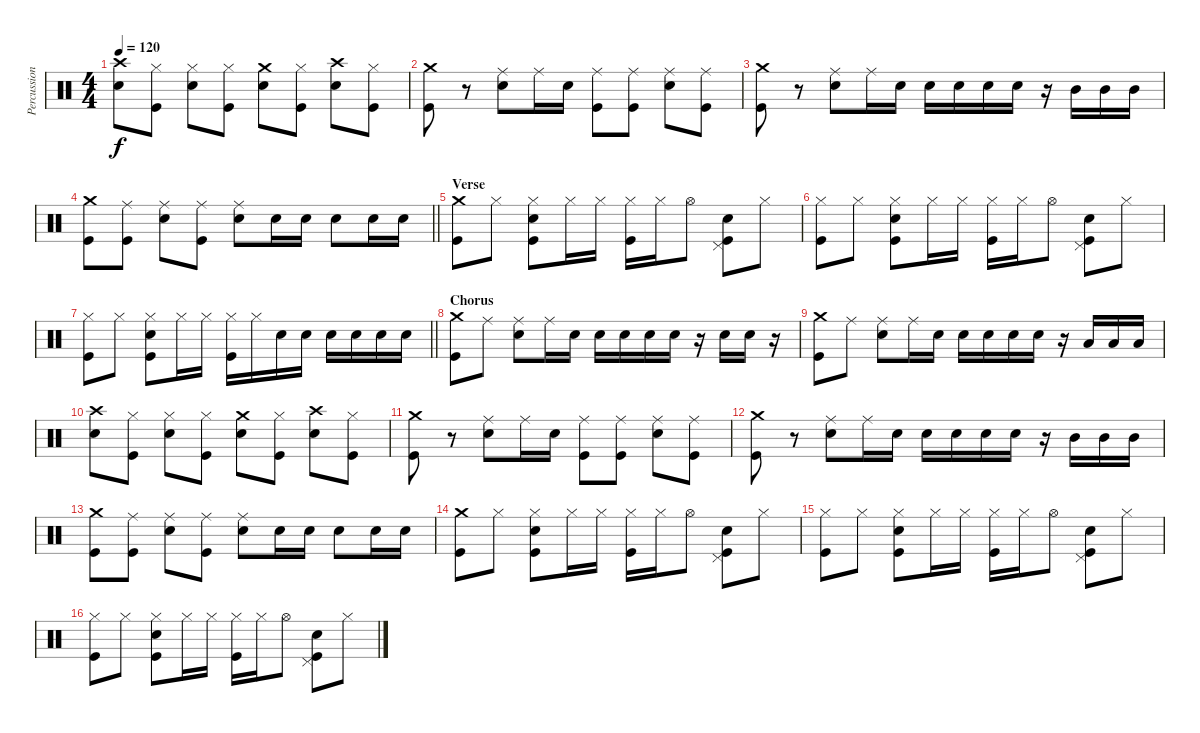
\track ("Percussion" "Percussion") {instrument percussion}
\staff {score}
\articulation defaults
\ts (4 4)
\tempo 120
\clef neutral
\ks c
("Crash high (hit)" "Snare (hit) 2").8{dy f} ("Hi-Hat (closed)" "Kick (hit)").8 ("Hi-Hat (closed)" "Snare (hit) 2").8 ("Hi-Hat (closed)" "Kick (hit)").8 ("Crash medium (hit)" "Snare (hit) 2").8 ("Hi-Hat (closed)" "Kick (hit)").8 ("Crash high (hit)" "Snare (hit) 2").8 ("Hi-Hat (closed)" "Kick (hit)").8 |
("Crash medium (hit)" "Kick (hit)").8 r.8 ("Ride (middle)" "Snare (hit) 2").8 "Ride (middle)".16 "Snare (hit) 2".16 ("Ride (middle)" "Kick (hit)").8 ("Ride (middle)" "Kick (hit)").8 ("Ride (middle)" "Snare (hit) 2").8 ("Ride (middle)" "Kick (hit)").8 |
("Crash medium (hit)" "Kick (hit)").8 r.8 ("Ride (middle)" "Snare (hit) 2").8 "Ride (middle)".16 "Snare (hit) 2".16 "Snare (hit) 2".16 "Snare (hit) 2".16 "Snare (hit) 2".16 "Snare (hit) 2".16 r.16 "Mid Tom (hit)".16 "Mid Tom (hit)".16 "Mid Tom (hit)".16 |
\barLineRight lightlight
("Crash medium (hit)" "Kick (hit)").8 ("Ride (middle)" "Kick (hit)").8 ("Ride (middle)" "Snare (hit) 2").8 ("Ride (middle)" "Kick (hit)").8 ("Ride (middle)" "Snare (hit) 2").8 "Snare (hit) 2".16 "Snare (hit) 2".16 "Snare (hit) 2".8 "Snare (hit) 2".16 "Snare (hit) 2".16 |
\section ("" "Verse")
("Crash medium (hit)" "Kick (hit)").8 "Hi-Hat (closed)".8 ("Snare (hit) 2" "Hi-Hat (closed)" "Kick (hit)").8 "Hi-Hat (closed)".16 "Hi-Hat (closed)".16 ("Hi-Hat (closed)" "Kick (hit)").16 "Hi-Hat (closed)".16 "Hi-Hat (open)".8 ("Snare (hit) 2" "Pedal Hi-Hat (hit)" "Kick (hit)").8 "Hi-Hat (closed)".8 |
("Hi-Hat (closed)" "Kick (hit)").8 "Hi-Hat (closed)".8 ("Snare (hit) 2" "Hi-Hat (closed)" "Kick (hit)").8 "Hi-Hat (closed)".16 "Hi-Hat (closed)".16 ("Hi-Hat (closed)" "Kick (hit)").16 "Hi-Hat (closed)".16 "Hi-Hat (open)".8 ("Snare (hit) 2" "Pedal Hi-Hat (hit)" "Kick (hit)").8 "Hi-Hat (closed)".8 |
\barLineRight lightlight
("Hi-Hat (closed)" "Kick (hit)").8 "Hi-Hat (closed)".8 ("Snare (hit) 2" "Hi-Hat (closed)" "Kick (hit)").8 "Hi-Hat (closed)".16 "Hi-Hat (closed)".16 ("Hi-Hat (closed)" "Kick (hit)").16 "Hi-Hat (closed)".16 "Snare (hit) 2".16 "Snare (hit) 2".16 "Snare (hit) 2".16 "Snare (hit) 2".16 "Snare (hit) 2".16 "Snare (hit) 2".16 |
\section ("" "Chorus")
("Crash medium (hit)" "Kick (hit)").8 "Ride (middle)".8 ("Ride (middle)" "Snare (hit) 2").8 "Ride (middle)".16 "Snare (hit) 2".16 "Snare (hit) 2".16 "Snare (hit) 2".16 "Snare (hit) 2".16 "Snare (hit) 2".16 r.16 "Snare (hit) 2".16 "Snare (hit) 2".16 r.16 |
("Crash medium (hit)" "Kick (hit)").8 "Ride (middle)".8 ("Ride (middle)" "Snare (hit) 2").8 "Ride (middle)".16 "Snare (hit) 2".16 "Snare (hit) 2".16 "Snare (hit) 2".16 "Snare (hit) 2".16 "Snare (hit) 2".16 r.16 "Low Tom (hit)".16 "Low Tom (hit)".16 "Low Tom (hit)".16 |
("Crash high (hit)" "Snare (hit) 2").8 ("Hi-Hat (closed)" "Kick (hit)").8 ("Hi-Hat (closed)" "Snare (hit) 2").8 ("Hi-Hat (closed)" "Kick (hit)").8 ("Crash medium (hit)" "Snare (hit) 2").8 ("Hi-Hat (closed)" "Kick (hit)").8 ("Crash high (hit)" "Snare (hit) 2").8 ("Hi-Hat (closed)" "Kick (hit)").8 |
("Crash medium (hit)" "Kick (hit)").8 r.8 ("Ride (middle)" "Snare (hit) 2").8 "Ride (middle)".16 "Snare (hit) 2".16 ("Ride (middle)" "Kick (hit)").8 ("Ride (middle)" "Kick (hit)").8 ("Ride (middle)" "Snare (hit) 2").8 ("Ride (middle)" "Kick (hit)").8 |
("Crash medium (hit)" "Kick (hit)").8 r.8 ("Ride (middle)" "Snare (hit) 2").8 "Ride (middle)".16 "Snare (hit) 2".16 "Snare (hit) 2".16 "Snare (hit) 2".16 "Snare (hit) 2".16 "Snare (hit) 2".16 r.16 "Mid Tom (hit)".16 "Mid Tom (hit)".16 "Mid Tom (hit)".16 |
("Crash medium (hit)" "Kick (hit)").8 ("Ride (middle)" "Kick (hit)").8 ("Ride (middle)" "Snare (hit) 2").8 ("Ride (middle)" "Kick (hit)").8 ("Ride (middle)" "Snare (hit) 2").8 "Snare (hit) 2".16 "Snare (hit) 2".16 "Snare (hit) 2".8 "Snare (hit) 2".16 "Snare (hit) 2".16 |
("Crash medium (hit)" "Kick (hit)").8 "Hi-Hat (closed)".8 ("Snare (hit) 2" "Hi-Hat (closed)" "Kick (hit)").8 "Hi-Hat (closed)".16 "Hi-Hat (closed)".16 ("Hi-Hat (closed)" "Kick (hit)").16 "Hi-Hat (closed)".16 "Hi-Hat (open)".8 ("Snare (hit) 2" "Pedal Hi-Hat (hit)" "Kick (hit)").8 "Hi-Hat (closed)".8 |
("Hi-Hat (closed)" "Kick (hit)").8 "Hi-Hat (closed)".8 ("Snare (hit) 2" "Hi-Hat (closed)" "Kick (hit)").8 "Hi-Hat (closed)".16 "Hi-Hat (closed)".16 ("Hi-Hat (closed)" "Kick (hit)").16 "Hi-Hat (closed)".16 "Hi-Hat (open)".8 ("Snare (hit) 2" "Pedal Hi-Hat (hit)" "Kick (hit)").8 "Hi-Hat (closed)".8 |
("Hi-Hat (closed)" "Kick (hit)").8 "Hi-Hat (closed)".8 ("Snare (hit) 2" "Hi-Hat (closed)" "Kick (hit)").8 "Hi-Hat (closed)".16 "Hi-Hat (closed)".16 ("Hi-Hat (closed)" "Kick (hit)").16 "Hi-Hat (closed)".16 "Hi-Hat (open)".8 ("Snare (hit) 2" "Pedal Hi-Hat (hit)" "Kick (hit)").8 "Hi-Hat (closed)".8
